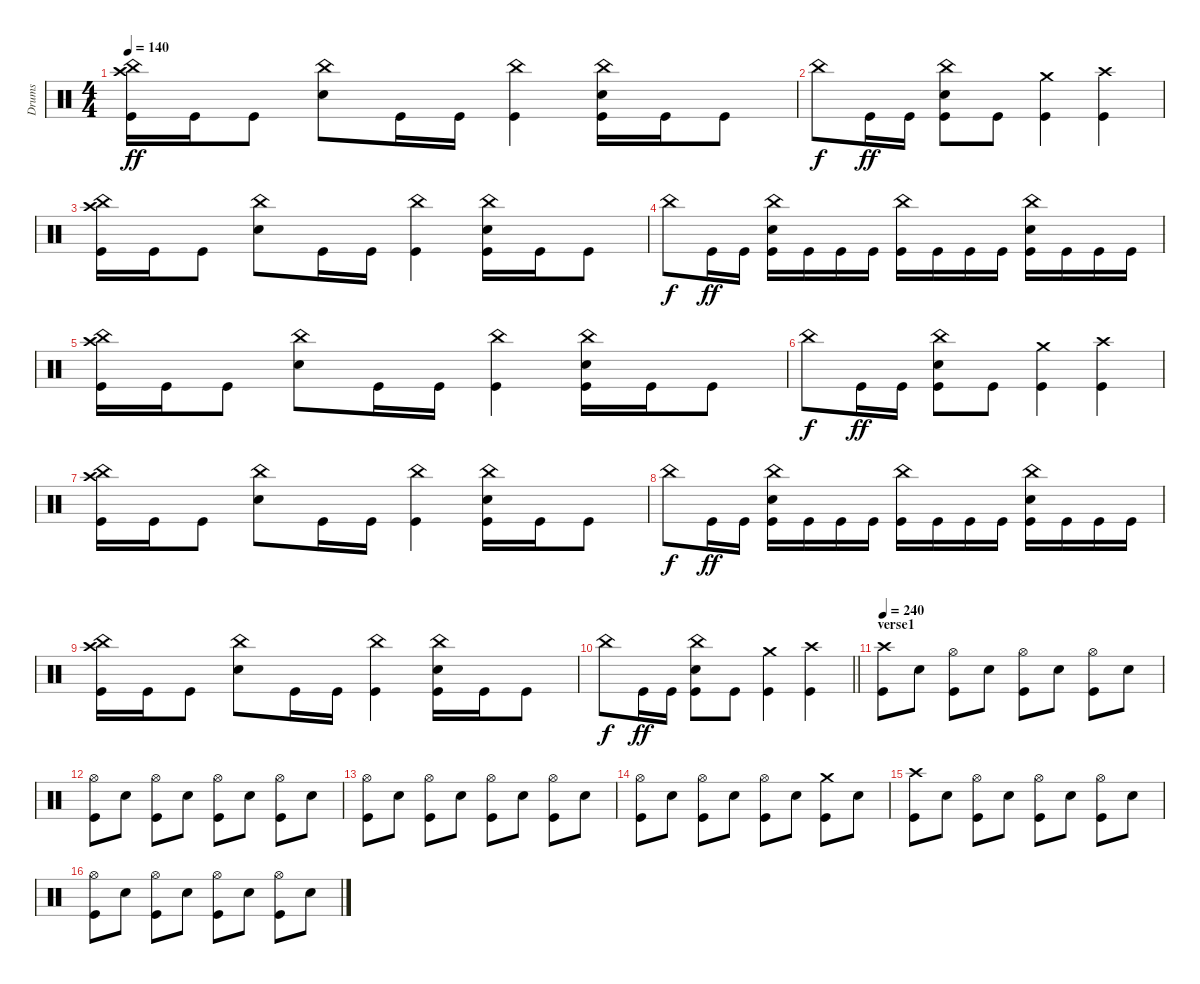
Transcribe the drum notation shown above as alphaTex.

\track ("Drums" "Drums") {instrument percussion}
\staff {score}
\articulation defaults
\ts (4 4)
\tempo 140
\clef neutral
\ks c
("Crash high (hit)" "China (hit)" "Kick (hit)").16{dy ff} "Kick (hit)".16 "Kick (hit)".8 ("China (hit)" "Electric Snare (hit)").8 "Kick (hit)".16 "Kick (hit)".16 ("China (hit)" "Kick (hit)").4 ("China (hit)" "Electric Snare (hit)" "Kick (hit)").16 "Kick (hit)".16 "Kick (hit)".8 |
"China (hit)".8{dy f} "Kick (hit)".16{dy ff} "Kick (hit)".16 ("China (hit)" "Electric Snare (hit)" "Kick (hit)").8 "Kick (hit)".8 ("Crash medium (hit)" "Kick (hit)").4 ("Crash high (hit)" "Kick (hit)").4 |
("Crash high (hit)" "China (hit)" "Kick (hit)").16 "Kick (hit)".16 "Kick (hit)".8 ("China (hit)" "Electric Snare (hit)").8 "Kick (hit)".16 "Kick (hit)".16 ("China (hit)" "Kick (hit)").4 ("China (hit)" "Electric Snare (hit)" "Kick (hit)").16 "Kick (hit)".16 "Kick (hit)".8 |
"China (hit)".8{dy f} "Kick (hit)".16{dy ff} "Kick (hit)".16 ("China (hit)" "Electric Snare (hit)" "Kick (hit)").16 "Kick (hit)".16 "Kick (hit)".16 "Kick (hit)".16 ("China (hit)" "Kick (hit)").16 "Kick (hit)".16 "Kick (hit)".16 "Kick (hit)".16 ("China (hit)" "Electric Snare (hit)" "Kick (hit)").16 "Kick (hit)".16 "Kick (hit)".16 "Kick (hit)".16 |
("Crash high (hit)" "China (hit)" "Kick (hit)").16 "Kick (hit)".16 "Kick (hit)".8 ("China (hit)" "Electric Snare (hit)").8 "Kick (hit)".16 "Kick (hit)".16 ("China (hit)" "Kick (hit)").4 ("China (hit)" "Electric Snare (hit)" "Kick (hit)").16 "Kick (hit)".16 "Kick (hit)".8 |
"China (hit)".8{dy f} "Kick (hit)".16{dy ff} "Kick (hit)".16 ("China (hit)" "Electric Snare (hit)" "Kick (hit)").8 "Kick (hit)".8 ("Crash medium (hit)" "Kick (hit)").4 ("Crash high (hit)" "Kick (hit)").4 |
("Crash high (hit)" "China (hit)" "Kick (hit)").16 "Kick (hit)".16 "Kick (hit)".8 ("China (hit)" "Electric Snare (hit)").8 "Kick (hit)".16 "Kick (hit)".16 ("China (hit)" "Kick (hit)").4 ("China (hit)" "Electric Snare (hit)" "Kick (hit)").16 "Kick (hit)".16 "Kick (hit)".8 |
"China (hit)".8{dy f} "Kick (hit)".16{dy ff} "Kick (hit)".16 ("China (hit)" "Electric Snare (hit)" "Kick (hit)").16 "Kick (hit)".16 "Kick (hit)".16 "Kick (hit)".16 ("China (hit)" "Kick (hit)").16 "Kick (hit)".16 "Kick (hit)".16 "Kick (hit)".16 ("China (hit)" "Electric Snare (hit)" "Kick (hit)").16 "Kick (hit)".16 "Kick (hit)".16 "Kick (hit)".16 |
("Crash high (hit)" "China (hit)" "Kick (hit)").16 "Kick (hit)".16 "Kick (hit)".8 ("China (hit)" "Electric Snare (hit)").8 "Kick (hit)".16 "Kick (hit)".16 ("China (hit)" "Kick (hit)").4 ("China (hit)" "Electric Snare (hit)" "Kick (hit)").16 "Kick (hit)".16 "Kick (hit)".8 |
\barLineRight lightlight "China (hit)".8{dy f} "Kick (hit)".16{dy ff} "Kick (hit)".16
("China (hit)" "Electric Snare (hit)" "Kick (hit)").8 "Kick (hit)".8 ("Crash medium (hit)" "Kick (hit)").4 ("Crash high (hit)" "Kick (hit)").4 |
\section ("" "verse1")
\tempo 240
("Crash high (hit)" "Kick (hit)").8 "Electric Snare (hit)".8 ("Hi-Hat (open)" "Kick (hit)").8 "Electric Snare (hit)".8 ("Hi-Hat (open)" "Kick (hit)").8 "Electric Snare (hit)".8 ("Hi-Hat (open)" "Kick (hit)").8 "Electric Snare (hit)".8 |
("Hi-Hat (open)" "Kick (hit)").8 "Electric Snare (hit)".8 ("Hi-Hat (open)" "Kick (hit)").8 "Electric Snare (hit)".8 ("Hi-Hat (open)" "Kick (hit)").8 "Electric Snare (hit)".8 ("Hi-Hat (open)" "Kick (hit)").8 "Electric Snare (hit)".8 |
("Hi-Hat (open)" "Kick (hit)").8 "Electric Snare (hit)".8 ("Hi-Hat (open)" "Kick (hit)").8 "Electric Snare (hit)".8 ("Hi-Hat (open)" "Kick (hit)").8 "Electric Snare (hit)".8 ("Hi-Hat (open)" "Kick (hit)").8 "Electric Snare (hit)".8 |
("Hi-Hat (open)" "Kick (hit)").8 "Electric Snare (hit)".8 ("Hi-Hat (open)" "Kick (hit)").8 "Electric Snare (hit)".8 ("Hi-Hat (open)" "Kick (hit)").8 "Electric Snare (hit)".8 ("Crash medium (hit)" "Kick (hit)").8 "Electric Snare (hit)".8 |
("Crash high (hit)" "Kick (hit)").8 "Electric Snare (hit)".8 ("Hi-Hat (open)" "Kick (hit)").8 "Electric Snare (hit)".8 ("Hi-Hat (open)" "Kick (hit)").8 "Electric Snare (hit)".8 ("Hi-Hat (open)" "Kick (hit)").8 "Electric Snare (hit)".8 |
("Hi-Hat (open)" "Kick (hit)").8 "Electric Snare (hit)".8 ("Hi-Hat (open)" "Kick (hit)").8 "Electric Snare (hit)".8 ("Hi-Hat (open)" "Kick (hit)").8 "Electric Snare (hit)".8 ("Hi-Hat (open)" "Kick (hit)").8 "Electric Snare (hit)".8
